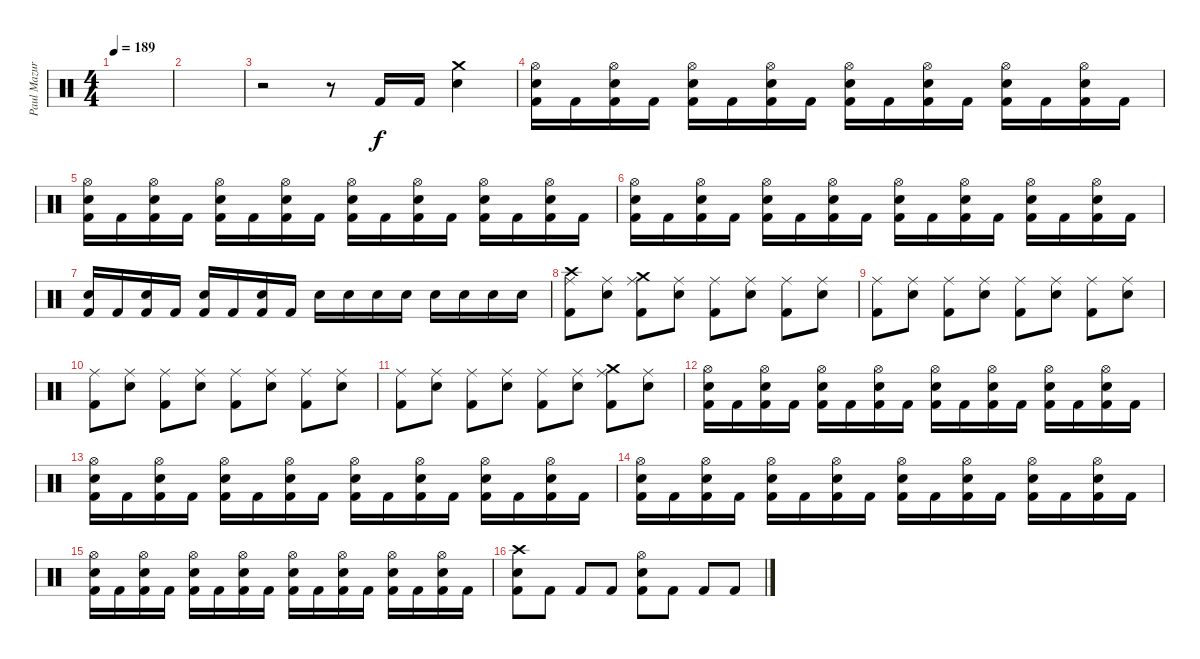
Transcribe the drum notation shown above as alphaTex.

\track ("Paul Mazurkevitch" "Paul Mazur") {instrument percussion}
\staff {score}
\articulation defaults
\ts (4 4)
\tempo 189
\clef neutral
\ks c
|
|
r.2 r.8 "Kick (hit) 2".16 "Kick (hit) 2".16 ("Crash medium (hit)" "Electric Snare (hit)").4 |
("Hi-Hat (open)" "Electric Snare (hit)" "Kick (hit) 2").16 "Kick (hit) 2".16 ("Hi-Hat (open)" "Electric Snare (hit)" "Kick (hit) 2").16 "Kick (hit) 2".16 ("Hi-Hat (open)" "Electric Snare (hit)" "Kick (hit) 2").16 "Kick (hit) 2".16 ("Hi-Hat (open)" "Electric Snare (hit)" "Kick (hit) 2").16 "Kick (hit) 2".16 ("Hi-Hat (open)" "Electric Snare (hit)" "Kick (hit) 2").16 "Kick (hit) 2".16 ("Hi-Hat (open)" "Electric Snare (hit)" "Kick (hit) 2").16 "Kick (hit) 2".16 ("Hi-Hat (open)" "Electric Snare (hit)" "Kick (hit) 2").16 "Kick (hit) 2".16 ("Hi-Hat (open)" "Electric Snare (hit)" "Kick (hit) 2").16 "Kick (hit) 2".16 |
("Hi-Hat (open)" "Electric Snare (hit)" "Kick (hit) 2").16 "Kick (hit) 2".16 ("Hi-Hat (open)" "Electric Snare (hit)" "Kick (hit) 2").16 "Kick (hit) 2".16 ("Hi-Hat (open)" "Electric Snare (hit)" "Kick (hit) 2").16 "Kick (hit) 2".16 ("Hi-Hat (open)" "Electric Snare (hit)" "Kick (hit) 2").16 "Kick (hit) 2".16 ("Hi-Hat (open)" "Electric Snare (hit)" "Kick (hit) 2").16 "Kick (hit) 2".16 ("Hi-Hat (open)" "Electric Snare (hit)" "Kick (hit) 2").16 "Kick (hit) 2".16 ("Hi-Hat (open)" "Electric Snare (hit)" "Kick (hit) 2").16 "Kick (hit) 2".16 ("Hi-Hat (open)" "Electric Snare (hit)" "Kick (hit) 2").16 "Kick (hit) 2".16 |
("Hi-Hat (open)" "Electric Snare (hit)" "Kick (hit) 2").16 "Kick (hit) 2".16 ("Hi-Hat (open)" "Electric Snare (hit)" "Kick (hit) 2").16 "Kick (hit) 2".16 ("Hi-Hat (open)" "Electric Snare (hit)" "Kick (hit) 2").16 "Kick (hit) 2".16 ("Hi-Hat (open)" "Electric Snare (hit)" "Kick (hit) 2").16 "Kick (hit) 2".16 ("Hi-Hat (open)" "Electric Snare (hit)" "Kick (hit) 2").16 "Kick (hit) 2".16 ("Hi-Hat (open)" "Electric Snare (hit)" "Kick (hit) 2").16 "Kick (hit) 2".16 ("Hi-Hat (open)" "Electric Snare (hit)" "Kick (hit) 2").16 "Kick (hit) 2".16 ("Hi-Hat (open)" "Electric Snare (hit)" "Kick (hit) 2").16 "Kick (hit) 2".16 |
("Electric Snare (hit)" "Kick (hit) 2").16 "Kick (hit) 2".16 ("Electric Snare (hit)" "Kick (hit) 2").16 "Kick (hit) 2".16 ("Electric Snare (hit)" "Kick (hit) 2").16 "Kick (hit) 2".16 ("Electric Snare (hit)" "Kick (hit) 2").16 "Kick (hit) 2".16 "Electric Snare (hit)".16 "Electric Snare (hit)".16 "Electric Snare (hit)".16 "Electric Snare (hit)".16 "Electric Snare (hit)".16 "Electric Snare (hit)".16 "Electric Snare (hit)".16 "Electric Snare (hit)".16 |
("Crash high (hit)" "Ride (middle)" "Kick (hit) 2").8 ("Ride (middle)" "Electric Snare (hit)").8 ("Crash medium (hit)" "Ride (middle)" "Kick (hit) 2").8 ("Ride (middle)" "Electric Snare (hit)").8 ("Ride (middle)" "Kick (hit) 2").8 ("Ride (middle)" "Electric Snare (hit)").8 ("Ride (middle)" "Kick (hit) 2").8 ("Ride (middle)" "Electric Snare (hit)").8 |
("Ride (middle)" "Kick (hit) 2").8 ("Ride (middle)" "Electric Snare (hit)").8 ("Ride (middle)" "Kick (hit) 2").8 ("Ride (middle)" "Electric Snare (hit)").8 ("Ride (middle)" "Kick (hit) 2").8 ("Ride (middle)" "Electric Snare (hit)").8 ("Ride (middle)" "Kick (hit) 2").8 ("Ride (middle)" "Electric Snare (hit)").8 |
("Ride (middle)" "Kick (hit) 2").8 ("Ride (middle)" "Electric Snare (hit)").8 ("Ride (middle)" "Kick (hit) 2").8 ("Ride (middle)" "Electric Snare (hit)").8 ("Ride (middle)" "Kick (hit) 2").8 ("Ride (middle)" "Electric Snare (hit)").8 ("Ride (middle)" "Kick (hit) 2").8 ("Ride (middle)" "Electric Snare (hit)").8 |
("Ride (middle)" "Kick (hit) 2").8 ("Ride (middle)" "Electric Snare (hit)").8 ("Ride (middle)" "Kick (hit) 2").8 ("Ride (middle)" "Electric Snare (hit)").8 ("Ride (middle)" "Kick (hit) 2").8 ("Ride (middle)" "Electric Snare (hit)").8 ("Crash medium (hit)" "Ride (middle)" "Kick (hit) 2").8 ("Ride (middle)" "Electric Snare (hit)").8 |
("Hi-Hat (open)" "Electric Snare (hit)" "Kick (hit) 2").16 "Kick (hit) 2".16 ("Hi-Hat (open)" "Electric Snare (hit)" "Kick (hit) 2").16 "Kick (hit) 2".16 ("Hi-Hat (open)" "Electric Snare (hit)" "Kick (hit) 2").16 "Kick (hit) 2".16 ("Hi-Hat (open)" "Electric Snare (hit)" "Kick (hit) 2").16 "Kick (hit) 2".16 ("Hi-Hat (open)" "Electric Snare (hit)" "Kick (hit) 2").16 "Kick (hit) 2".16 ("Hi-Hat (open)" "Electric Snare (hit)" "Kick (hit) 2").16 "Kick (hit) 2".16 ("Hi-Hat (open)" "Electric Snare (hit)" "Kick (hit) 2").16 "Kick (hit) 2".16 ("Hi-Hat (open)" "Electric Snare (hit)" "Kick (hit) 2").16 "Kick (hit) 2".16 |
("Hi-Hat (open)" "Electric Snare (hit)" "Kick (hit) 2").16 "Kick (hit) 2".16 ("Hi-Hat (open)" "Electric Snare (hit)" "Kick (hit) 2").16 "Kick (hit) 2".16 ("Hi-Hat (open)" "Electric Snare (hit)" "Kick (hit) 2").16 "Kick (hit) 2".16 ("Hi-Hat (open)" "Electric Snare (hit)" "Kick (hit) 2").16 "Kick (hit) 2".16 ("Hi-Hat (open)" "Electric Snare (hit)" "Kick (hit) 2").16 "Kick (hit) 2".16 ("Hi-Hat (open)" "Electric Snare (hit)" "Kick (hit) 2").16 "Kick (hit) 2".16 ("Hi-Hat (open)" "Electric Snare (hit)" "Kick (hit) 2").16 "Kick (hit) 2".16 ("Hi-Hat (open)" "Electric Snare (hit)" "Kick (hit) 2").16 "Kick (hit) 2".16 |
("Hi-Hat (open)" "Electric Snare (hit)" "Kick (hit) 2").16 "Kick (hit) 2".16 ("Hi-Hat (open)" "Electric Snare (hit)" "Kick (hit) 2").16 "Kick (hit) 2".16 ("Hi-Hat (open)" "Electric Snare (hit)" "Kick (hit) 2").16 "Kick (hit) 2".16 ("Hi-Hat (open)" "Electric Snare (hit)" "Kick (hit) 2").16 "Kick (hit) 2".16 ("Hi-Hat (open)" "Electric Snare (hit)" "Kick (hit) 2").16 "Kick (hit) 2".16 ("Hi-Hat (open)" "Electric Snare (hit)" "Kick (hit) 2").16 "Kick (hit) 2".16 ("Hi-Hat (open)" "Electric Snare (hit)" "Kick (hit) 2").16 "Kick (hit) 2".16 ("Hi-Hat (open)" "Electric Snare (hit)" "Kick (hit) 2").16 "Kick (hit) 2".16 |
("Hi-Hat (open)" "Electric Snare (hit)" "Kick (hit) 2").16 "Kick (hit) 2".16 ("Hi-Hat (open)" "Electric Snare (hit)" "Kick (hit) 2").16 "Kick (hit) 2".16 ("Hi-Hat (open)" "Electric Snare (hit)" "Kick (hit) 2").16 "Kick (hit) 2".16 ("Hi-Hat (open)" "Electric Snare (hit)" "Kick (hit) 2").16 "Kick (hit) 2".16 ("Hi-Hat (open)" "Electric Snare (hit)" "Kick (hit) 2").16 "Kick (hit) 2".16 ("Hi-Hat (open)" "Electric Snare (hit)" "Kick (hit) 2").16 "Kick (hit) 2".16 ("Hi-Hat (open)" "Electric Snare (hit)" "Kick (hit) 2").16 "Kick (hit) 2".16 ("Hi-Hat (open)" "Electric Snare (hit)" "Kick (hit) 2").16 "Kick (hit) 2".16 |
("Crash high (hit)" "Electric Snare (hit)" "Kick (hit) 2").8 "Kick (hit) 2".8 "Kick (hit) 2".8 "Kick (hit) 2".8 ("Hi-Hat (open)" "Electric Snare (hit)" "Kick (hit) 2").8 "Kick (hit) 2".8 "Kick (hit) 2".8 "Kick (hit) 2".8
